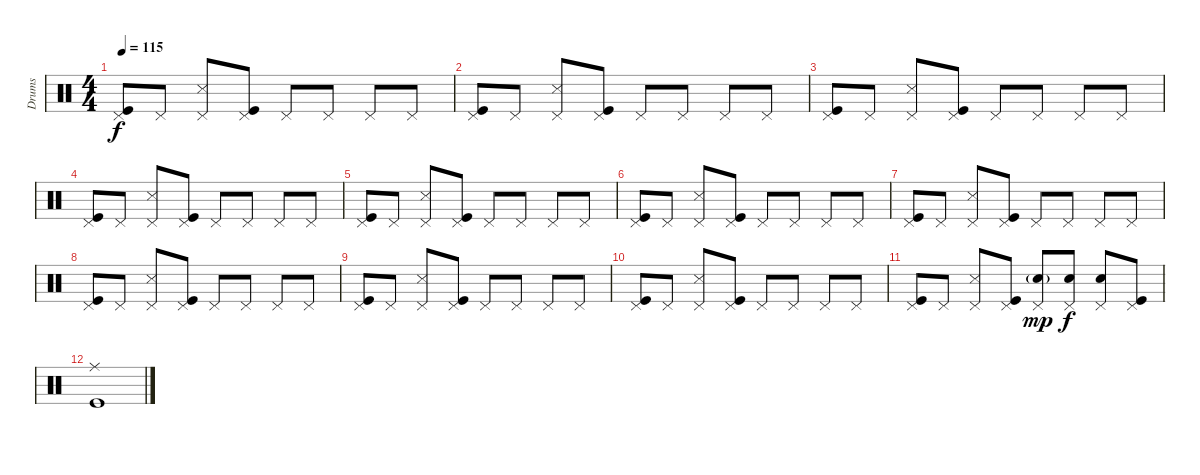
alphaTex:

\track ("Drums" "Drums") {instrument percussion}
\staff {score}
\articulation defaults
\ts (4 4)
\tempo 115
\clef neutral
\ks c
("Pedal Hi-Hat (hit)" "Kick (hit)").8{dy f} "Pedal Hi-Hat (hit)".8 ("Pedal Hi-Hat (hit)" "Snare (side stick) 3").8 ("Pedal Hi-Hat (hit)" "Kick (hit)").8 "Pedal Hi-Hat (hit)".8 "Pedal Hi-Hat (hit)".8 "Pedal Hi-Hat (hit)".8 "Pedal Hi-Hat (hit)".8 |
("Pedal Hi-Hat (hit)" "Kick (hit)").8 "Pedal Hi-Hat (hit)".8 ("Pedal Hi-Hat (hit)" "Snare (side stick) 3").8 ("Pedal Hi-Hat (hit)" "Kick (hit)").8 "Pedal Hi-Hat (hit)".8 "Pedal Hi-Hat (hit)".8 "Pedal Hi-Hat (hit)".8 "Pedal Hi-Hat (hit)".8 |
("Pedal Hi-Hat (hit)" "Kick (hit)").8 "Pedal Hi-Hat (hit)".8 ("Pedal Hi-Hat (hit)" "Snare (side stick) 3").8 ("Pedal Hi-Hat (hit)" "Kick (hit)").8 "Pedal Hi-Hat (hit)".8 "Pedal Hi-Hat (hit)".8 "Pedal Hi-Hat (hit)".8 "Pedal Hi-Hat (hit)".8 |
("Pedal Hi-Hat (hit)" "Kick (hit)").8 "Pedal Hi-Hat (hit)".8 ("Pedal Hi-Hat (hit)" "Snare (side stick) 3").8 ("Pedal Hi-Hat (hit)" "Kick (hit)").8 "Pedal Hi-Hat (hit)".8 "Pedal Hi-Hat (hit)".8 "Pedal Hi-Hat (hit)".8 "Pedal Hi-Hat (hit)".8 |
("Pedal Hi-Hat (hit)" "Kick (hit)").8 "Pedal Hi-Hat (hit)".8 ("Pedal Hi-Hat (hit)" "Snare (side stick) 3").8 ("Pedal Hi-Hat (hit)" "Kick (hit)").8 "Pedal Hi-Hat (hit)".8 "Pedal Hi-Hat (hit)".8 "Pedal Hi-Hat (hit)".8 "Pedal Hi-Hat (hit)".8 |
("Pedal Hi-Hat (hit)" "Kick (hit)").8 "Pedal Hi-Hat (hit)".8 ("Pedal Hi-Hat (hit)" "Snare (side stick) 3").8 ("Pedal Hi-Hat (hit)" "Kick (hit)").8 "Pedal Hi-Hat (hit)".8 "Pedal Hi-Hat (hit)".8 "Pedal Hi-Hat (hit)".8 "Pedal Hi-Hat (hit)".8 |
("Pedal Hi-Hat (hit)" "Kick (hit)").8 "Pedal Hi-Hat (hit)".8 ("Pedal Hi-Hat (hit)" "Snare (side stick) 3").8 ("Pedal Hi-Hat (hit)" "Kick (hit)").8 "Pedal Hi-Hat (hit)".8 "Pedal Hi-Hat (hit)".8 "Pedal Hi-Hat (hit)".8 "Pedal Hi-Hat (hit)".8 |
("Pedal Hi-Hat (hit)" "Kick (hit)").8 "Pedal Hi-Hat (hit)".8 ("Pedal Hi-Hat (hit)" "Snare (side stick) 3").8 ("Pedal Hi-Hat (hit)" "Kick (hit)").8 "Pedal Hi-Hat (hit)".8 "Pedal Hi-Hat (hit)".8 "Pedal Hi-Hat (hit)".8 "Pedal Hi-Hat (hit)".8 |
("Pedal Hi-Hat (hit)" "Kick (hit)").8 "Pedal Hi-Hat (hit)".8 ("Pedal Hi-Hat (hit)" "Snare (side stick) 3").8 ("Pedal Hi-Hat (hit)" "Kick (hit)").8 "Pedal Hi-Hat (hit)".8 "Pedal Hi-Hat (hit)".8 "Pedal Hi-Hat (hit)".8 "Pedal Hi-Hat (hit)".8 |
("Pedal Hi-Hat (hit)" "Kick (hit)").8 "Pedal Hi-Hat (hit)".8 ("Pedal Hi-Hat (hit)" "Snare (side stick) 3").8 ("Pedal Hi-Hat (hit)" "Kick (hit)").8 "Pedal Hi-Hat (hit)".8 "Pedal Hi-Hat (hit)".8 "Pedal Hi-Hat (hit)".8 "Pedal Hi-Hat (hit)".8 |
("Pedal Hi-Hat (hit)" "Kick (hit)").8 "Pedal Hi-Hat (hit)".8 ("Pedal Hi-Hat (hit)" "Snare (side stick) 3").8 ("Pedal Hi-Hat (hit)" "Kick (hit)").8 ("Pedal Hi-Hat (hit)" "Electric Snare (hit)"{g}).8{dy mp} ("Pedal Hi-Hat (hit)" "Electric Snare (hit)").8{dy f} ("Pedal Hi-Hat (hit)" "Electric Snare (hit)").8 ("Pedal Hi-Hat (hit)" "Kick (hit)").8 |
("Ride (middle)" "Kick (hit)").1
